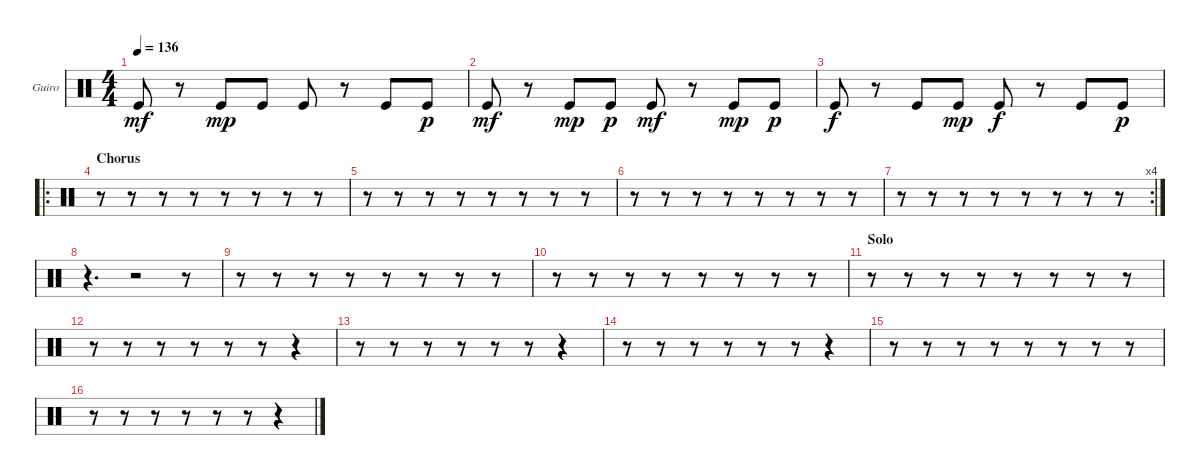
\bracketExtendMode groupsimilarinstruments
\firstSystemTrackNameOrientation horizontal
\otherSystemsTrackNameOrientation horizontal
\track ("Guiro" "Guiro") {instrument percussion}
\staff {score}
\articulation defaults
\ts (4 4)
\tempo 136
\clef neutral
\ks c "Kick (hit)".8{dy mf}
r.8 "Kick (hit)".8{dy mp} "Kick (hit)".8 "Kick (hit)".8 r.8 "Kick (hit)".8 "Kick (hit)".8{dy p} |
"Kick (hit)".8{dy mf} r.8 "Kick (hit)".8{dy mp} "Kick (hit)".8{dy p} "Kick (hit)".8{dy mf} r.8 "Kick (hit)".8{dy mp} "Kick (hit)".8{dy p} |
"Kick (hit)".8{dy f} r.8 "Kick (hit)".8 "Kick (hit)".8{dy mp} "Kick (hit)".8{dy f} r.8 "Kick (hit)".8 "Kick (hit)".8{dy p} |
\ro
\section ("" "Chorus")
r.8 r.8 r.8 r.8 r.8 r.8 r.8 r.8 |
r.8 r.8 r.8 r.8 r.8 r.8 r.8 r.8 |
r.8 r.8 r.8 r.8 r.8 r.8 r.8 r.8 |
\rc 4
r.8 r.8 r.8 r.8 r.8 r.8 r.8 r.8 |
r.4{d} r.2 r.8 |
r.8 r.8 r.8 r.8 r.8 r.8 r.8 r.8 |
r.8 r.8 r.8 r.8 r.8 r.8 r.8 r.8 |
\section ("" "Solo")
r.8 r.8 r.8 r.8 r.8 r.8 r.8 r.8 |
r.8 r.8 r.8 r.8 r.8 r.8 r.4 |
r.8 r.8 r.8 r.8 r.8 r.8 r.4 |
r.8 r.8 r.8 r.8 r.8 r.8 r.4 |
r.8 r.8 r.8 r.8 r.8 r.8 r.8 r.8 |
r.8 r.8 r.8 r.8 r.8 r.8 r.4
